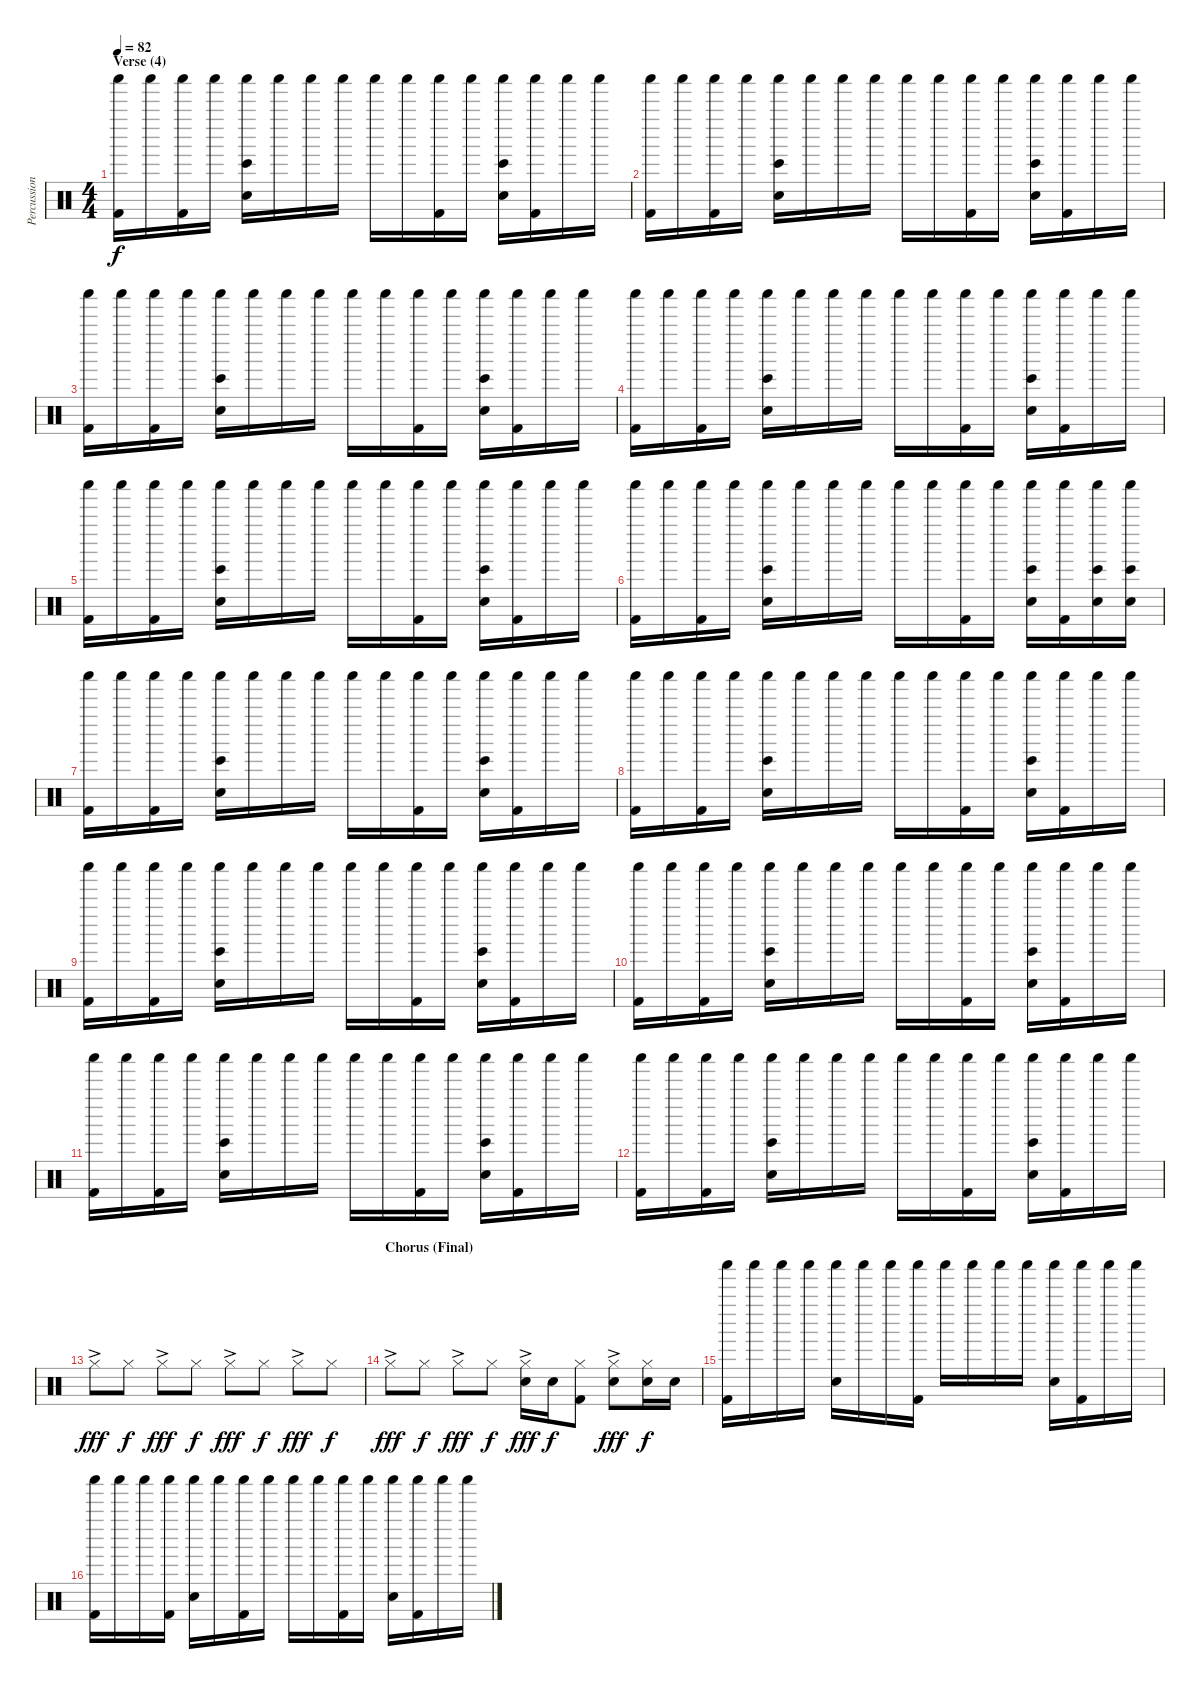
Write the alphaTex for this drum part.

\track ("Percussion" "Percussion") {instrument percussion}
\staff {score}
\articulation defaults
\ts (4 4)
\section ("" "Verse (4)")
\tempo 82
\clef neutral
\ks c
("Shaker (hit)" "Kick (hit) 2").16{dy f} "Shaker (hit)".16 ("Shaker (hit)" "Kick (hit) 2").16 "Shaker (hit)".16 ("Shaker (hit)" "Bongo High (hit)" "Hand Clap (hit)").16 "Shaker (hit)".16 "Shaker (hit)".16 "Shaker (hit)".16 "Shaker (hit)".16 "Shaker (hit)".16 ("Shaker (hit)" "Kick (hit) 2").16 "Shaker (hit)".16 ("Shaker (hit)" "Bongo High (hit)" "Hand Clap (hit)").16 ("Shaker (hit)" "Kick (hit) 2").16 "Shaker (hit)".16 "Shaker (hit)".16 |
("Shaker (hit)" "Kick (hit) 2").16 "Shaker (hit)".16 ("Shaker (hit)" "Kick (hit) 2").16 "Shaker (hit)".16 ("Shaker (hit)" "Bongo High (hit)" "Hand Clap (hit)").16 "Shaker (hit)".16 "Shaker (hit)".16 "Shaker (hit)".16 "Shaker (hit)".16 "Shaker (hit)".16 ("Shaker (hit)" "Kick (hit) 2").16 "Shaker (hit)".16 ("Shaker (hit)" "Bongo High (hit)" "Hand Clap (hit)").16 ("Shaker (hit)" "Kick (hit) 2").16 "Shaker (hit)".16 "Shaker (hit)".16 |
("Shaker (hit)" "Kick (hit) 2").16 "Shaker (hit)".16 ("Shaker (hit)" "Kick (hit) 2").16 "Shaker (hit)".16 ("Shaker (hit)" "Bongo High (hit)" "Hand Clap (hit)").16 "Shaker (hit)".16 "Shaker (hit)".16 "Shaker (hit)".16 "Shaker (hit)".16 "Shaker (hit)".16 ("Shaker (hit)" "Kick (hit) 2").16 "Shaker (hit)".16 ("Shaker (hit)" "Bongo High (hit)" "Hand Clap (hit)").16 ("Shaker (hit)" "Kick (hit) 2").16 "Shaker (hit)".16 "Shaker (hit)".16 |
("Shaker (hit)" "Kick (hit) 2").16 "Shaker (hit)".16 ("Shaker (hit)" "Kick (hit) 2").16 "Shaker (hit)".16 ("Shaker (hit)" "Bongo High (hit)" "Hand Clap (hit)").16 "Shaker (hit)".16 "Shaker (hit)".16 "Shaker (hit)".16 "Shaker (hit)".16 "Shaker (hit)".16 ("Shaker (hit)" "Kick (hit) 2").16 "Shaker (hit)".16 ("Shaker (hit)" "Bongo High (hit)" "Hand Clap (hit)").16 ("Shaker (hit)" "Kick (hit) 2").16 "Shaker (hit)".16 "Shaker (hit)".16 |
("Shaker (hit)" "Kick (hit) 2").16 "Shaker (hit)".16 ("Shaker (hit)" "Kick (hit) 2").16 "Shaker (hit)".16 ("Shaker (hit)" "Bongo High (hit)" "Hand Clap (hit)").16 "Shaker (hit)".16 "Shaker (hit)".16 "Shaker (hit)".16 "Shaker (hit)".16 "Shaker (hit)".16 ("Shaker (hit)" "Kick (hit) 2").16 "Shaker (hit)".16 ("Shaker (hit)" "Bongo High (hit)" "Hand Clap (hit)").16 ("Shaker (hit)" "Kick (hit) 2").16 "Shaker (hit)".16 "Shaker (hit)".16 |
("Shaker (hit)" "Kick (hit) 2").16 "Shaker (hit)".16 ("Shaker (hit)" "Kick (hit) 2").16 "Shaker (hit)".16 ("Shaker (hit)" "Bongo High (hit)" "Hand Clap (hit)").16 "Shaker (hit)".16 "Shaker (hit)".16 "Shaker (hit)".16 "Shaker (hit)".16 "Shaker (hit)".16 ("Shaker (hit)" "Kick (hit) 2").16 "Shaker (hit)".16 ("Shaker (hit)" "Bongo High (hit)" "Hand Clap (hit)").16 ("Shaker (hit)" "Kick (hit) 2").16 ("Shaker (hit)" "Bongo High (hit)" "Hand Clap (hit)").16 ("Shaker (hit)" "Bongo High (hit)" "Hand Clap (hit)").16 |
("Shaker (hit)" "Kick (hit) 2").16 "Shaker (hit)".16 ("Shaker (hit)" "Kick (hit) 2").16 "Shaker (hit)".16 ("Shaker (hit)" "Bongo High (hit)" "Hand Clap (hit)").16 "Shaker (hit)".16 "Shaker (hit)".16 "Shaker (hit)".16 "Shaker (hit)".16 "Shaker (hit)".16 ("Shaker (hit)" "Kick (hit) 2").16 "Shaker (hit)".16 ("Shaker (hit)" "Bongo High (hit)" "Hand Clap (hit)").16 ("Shaker (hit)" "Kick (hit) 2").16 "Shaker (hit)".16 "Shaker (hit)".16 |
("Shaker (hit)" "Kick (hit) 2").16 "Shaker (hit)".16 ("Shaker (hit)" "Kick (hit) 2").16 "Shaker (hit)".16 ("Shaker (hit)" "Bongo High (hit)" "Hand Clap (hit)").16 "Shaker (hit)".16 "Shaker (hit)".16 "Shaker (hit)".16 "Shaker (hit)".16 "Shaker (hit)".16 ("Shaker (hit)" "Kick (hit) 2").16 "Shaker (hit)".16 ("Shaker (hit)" "Bongo High (hit)" "Hand Clap (hit)").16 ("Shaker (hit)" "Kick (hit) 2").16 "Shaker (hit)".16 "Shaker (hit)".16 |
("Shaker (hit)" "Kick (hit) 2").16 "Shaker (hit)".16 ("Shaker (hit)" "Kick (hit) 2").16 "Shaker (hit)".16 ("Shaker (hit)" "Bongo High (hit)" "Hand Clap (hit)").16 "Shaker (hit)".16 "Shaker (hit)".16 "Shaker (hit)".16 "Shaker (hit)".16 "Shaker (hit)".16 ("Shaker (hit)" "Kick (hit) 2").16 "Shaker (hit)".16 ("Shaker (hit)" "Bongo High (hit)" "Hand Clap (hit)").16 ("Shaker (hit)" "Kick (hit) 2").16 "Shaker (hit)".16 "Shaker (hit)".16 |
("Shaker (hit)" "Kick (hit) 2").16 "Shaker (hit)".16 ("Shaker (hit)" "Kick (hit) 2").16 "Shaker (hit)".16 ("Shaker (hit)" "Bongo High (hit)" "Hand Clap (hit)").16 "Shaker (hit)".16 "Shaker (hit)".16 "Shaker (hit)".16 "Shaker (hit)".16 "Shaker (hit)".16 ("Shaker (hit)" "Kick (hit) 2").16 "Shaker (hit)".16 ("Shaker (hit)" "Bongo High (hit)" "Hand Clap (hit)").16 ("Shaker (hit)" "Kick (hit) 2").16 "Shaker (hit)".16 "Shaker (hit)".16 |
("Shaker (hit)" "Kick (hit) 2").16 "Shaker (hit)".16 ("Shaker (hit)" "Kick (hit) 2").16 "Shaker (hit)".16 ("Shaker (hit)" "Bongo High (hit)" "Hand Clap (hit)").16 "Shaker (hit)".16 "Shaker (hit)".16 "Shaker (hit)".16 "Shaker (hit)".16 "Shaker (hit)".16 ("Shaker (hit)" "Kick (hit) 2").16 "Shaker (hit)".16 ("Shaker (hit)" "Bongo High (hit)" "Hand Clap (hit)").16 ("Shaker (hit)" "Kick (hit) 2").16 "Shaker (hit)".16 "Shaker (hit)".16 |
("Shaker (hit)" "Kick (hit) 2").16 "Shaker (hit)".16 ("Shaker (hit)" "Kick (hit) 2").16 "Shaker (hit)".16 ("Shaker (hit)" "Bongo High (hit)" "Hand Clap (hit)").16 "Shaker (hit)".16 "Shaker (hit)".16 "Shaker (hit)".16 "Shaker (hit)".16 "Shaker (hit)".16 ("Shaker (hit)" "Kick (hit) 2").16 "Shaker (hit)".16 ("Shaker (hit)" "Bongo High (hit)" "Hand Clap (hit)").16 ("Shaker (hit)" "Kick (hit) 2").16 "Shaker (hit)".16 "Shaker (hit)".16 |
"Hi-Hat (closed)"{ac}.8{dy fff} "Hi-Hat (closed)".8{dy f} "Hi-Hat (closed)"{ac}.8{dy fff} "Hi-Hat (closed)".8{dy f} "Hi-Hat (closed)"{ac}.8{dy fff} "Hi-Hat (closed)".8{dy f} "Hi-Hat (closed)"{ac}.8{dy fff} "Hi-Hat (closed)".8{dy f} |
\section ("" "Chorus (Final)")
"Hi-Hat (closed)"{ac}.8{dy fff} "Hi-Hat (closed)".8{dy f} "Hi-Hat (closed)"{ac}.8{dy fff} "Hi-Hat (closed)".8{dy f} ("Hi-Hat (closed)"{ac} "Snare (hit) 2").16{dy fff} "Snare (hit) 2".16{dy f} ("Hi-Hat (closed)" "Kick (hit) 2").8 ("Hi-Hat (closed)"{ac} "Snare (hit) 2").8{dy fff} ("Hi-Hat (closed)" "Snare (hit) 2").16{dy f} "Snare (hit) 2".16 |
("Shaker (hit)" "Kick (hit) 2").16 "Shaker (hit)".16 "Shaker (hit)".16 "Shaker (hit)".16 ("Shaker (hit)" "Snare (hit) 2").16 "Shaker (hit)".16 "Shaker (hit)".16 ("Shaker (hit)" "Kick (hit) 2").16 "Shaker (hit)".16 "Shaker (hit)".16 "Shaker (hit)".16 "Shaker (hit)".16 ("Shaker (hit)" "Snare (hit) 2").16 ("Shaker (hit)" "Kick (hit) 2").16 "Shaker (hit)".16 "Shaker (hit)".16 |
("Shaker (hit)" "Kick (hit) 2").16 "Shaker (hit)".16 "Shaker (hit)".16 ("Shaker (hit)" "Kick (hit) 2").16 ("Shaker (hit)" "Snare (hit) 2").16 "Shaker (hit)".16 ("Shaker (hit)" "Kick (hit) 2").16 "Shaker (hit)".16 "Shaker (hit)".16 "Shaker (hit)".16 ("Shaker (hit)" "Kick (hit) 2").16 "Shaker (hit)".16 ("Shaker (hit)" "Snare (hit) 2").16 ("Shaker (hit)" "Kick (hit) 2").16 "Shaker (hit)".16 "Shaker (hit)".16
